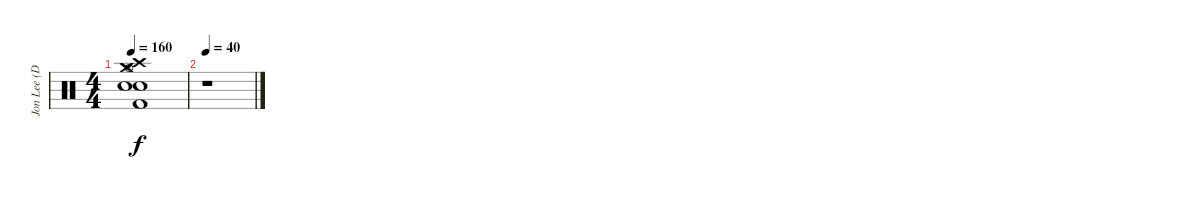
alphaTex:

\track ("Jon Lee (Drums)" "Jon Lee (D") {instrument percussion}
\staff {score}
\articulation defaults
\ts (4 4)
\tempo 160
\clef neutral
\ks c
("Hi-Hat (open)" "Crash medium (hit)" "Crash high (hit)" "Snare (hit) 2" "Electric Snare (hit)" "Kick (hit) 2").1{dy f} |
\tempo 40
r.1
